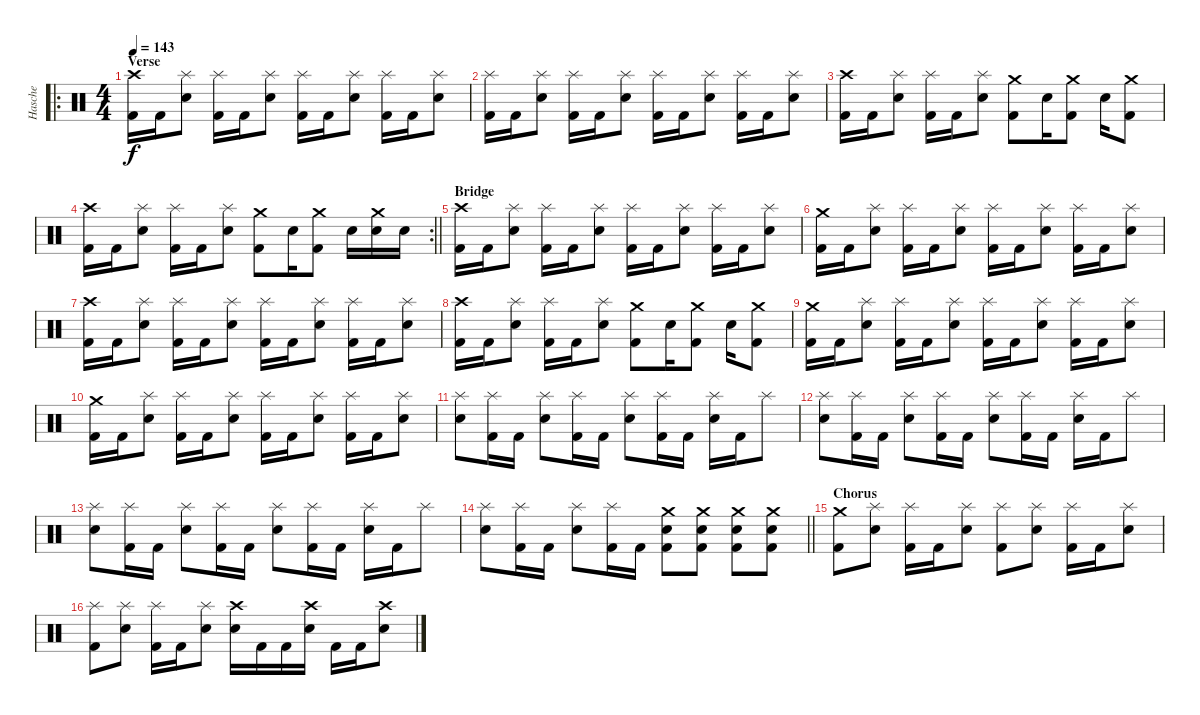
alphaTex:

\track ("Hasche" "Hasche") {instrument percussion}
\staff {score}
\articulation defaults
\ro
\ts (4 4)
\section ("" "Verse")
\tempo 143
\clef neutral
\ks c
("Crash high (hit)" "Kick (hit) 2").16{dy f} "Kick (hit) 2".16 ("Splash (hit)" "Snare (hit) 2").8 ("Splash (hit)" "Kick (hit) 2").16 "Kick (hit) 2".16 ("Splash (hit)" "Snare (hit) 2").8 ("Splash (hit)" "Kick (hit) 2").16 "Kick (hit) 2".16 ("Splash (hit)" "Snare (hit) 2").8 ("Splash (hit)" "Kick (hit) 2").16 "Kick (hit) 2".16 ("Splash (hit)" "Snare (hit) 2").8 |
("Splash (hit)" "Kick (hit) 2").16 "Kick (hit) 2".16 ("Splash (hit)" "Snare (hit) 2").8 ("Splash (hit)" "Kick (hit) 2").16 "Kick (hit) 2".16 ("Splash (hit)" "Snare (hit) 2").8 ("Splash (hit)" "Kick (hit) 2").16 "Kick (hit) 2".16 ("Splash (hit)" "Snare (hit) 2").8 ("Splash (hit)" "Kick (hit) 2").16 "Kick (hit) 2".16 ("Splash (hit)" "Snare (hit) 2").8 |
("Crash high (hit)" "Kick (hit) 2").16 "Kick (hit) 2".16 ("Splash (hit)" "Snare (hit) 2").8 ("Splash (hit)" "Kick (hit) 2").16 "Kick (hit) 2".16 ("Splash (hit)" "Snare (hit) 2").8 ("Crash medium (hit)" "Kick (hit) 2").8 "Snare (hit) 2".16 ("Crash medium (hit)" "Kick (hit) 2").8 "Snare (hit) 2".16 ("Crash medium (hit)" "Kick (hit) 2").8 |
\rc 2
\barLineRight lightlight
("Crash high (hit)" "Kick (hit) 2").16 "Kick (hit) 2".16 ("Splash (hit)" "Snare (hit) 2").8 ("Splash (hit)" "Kick (hit) 2").16 "Kick (hit) 2".16 ("Splash (hit)" "Snare (hit) 2").8 ("Crash medium (hit)" "Kick (hit) 2").8 "Snare (hit) 2".16 ("Crash medium (hit)" "Kick (hit) 2").8 "Snare (hit) 2".16 ("Crash medium (hit)" "Snare (hit) 2").16 "Snare (hit) 2".16 |
\section ("" "Bridge")
("Crash high (hit)" "Kick (hit) 2").16 "Kick (hit) 2".16 ("Splash (hit)" "Snare (hit) 2").8 ("Splash (hit)" "Kick (hit) 2").16 "Kick (hit) 2".16 ("Splash (hit)" "Snare (hit) 2").8 ("Splash (hit)" "Kick (hit) 2").16 "Kick (hit) 2".16 ("Splash (hit)" "Snare (hit) 2").8 ("Splash (hit)" "Kick (hit) 2").16 "Kick (hit) 2".16 ("Splash (hit)" "Snare (hit) 2").8 |
("Crash medium (hit)" "Kick (hit) 2").16 "Kick (hit) 2".16 ("Splash (hit)" "Snare (hit) 2").8 ("Splash (hit)" "Kick (hit) 2").16 "Kick (hit) 2".16 ("Splash (hit)" "Snare (hit) 2").8 ("Splash (hit)" "Kick (hit) 2").16 "Kick (hit) 2".16 ("Splash (hit)" "Snare (hit) 2").8 ("Splash (hit)" "Kick (hit) 2").16 "Kick (hit) 2".16 ("Splash (hit)" "Snare (hit) 2").8 |
("Crash high (hit)" "Kick (hit) 2").16 "Kick (hit) 2".16 ("Splash (hit)" "Snare (hit) 2").8 ("Splash (hit)" "Kick (hit) 2").16 "Kick (hit) 2".16 ("Splash (hit)" "Snare (hit) 2").8 ("Splash (hit)" "Kick (hit) 2").16 "Kick (hit) 2".16 ("Splash (hit)" "Snare (hit) 2").8 ("Splash (hit)" "Kick (hit) 2").16 "Kick (hit) 2".16 ("Splash (hit)" "Snare (hit) 2").8 |
("Crash high (hit)" "Kick (hit) 2").16 "Kick (hit) 2".16 ("Splash (hit)" "Snare (hit) 2").8 ("Splash (hit)" "Kick (hit) 2").16 "Kick (hit) 2".16 ("Splash (hit)" "Snare (hit) 2").8 ("Crash medium (hit)" "Kick (hit) 2").8 "Snare (hit) 2".16 ("Crash medium (hit)" "Kick (hit) 2").8 "Snare (hit) 2".16 ("Crash medium (hit)" "Kick (hit) 2").8 |
("Crash medium (hit)" "Kick (hit) 2").16 "Kick (hit) 2".16 ("Splash (hit)" "Snare (hit) 2").8 ("Splash (hit)" "Kick (hit) 2").16 "Kick (hit) 2".16 ("Splash (hit)" "Snare (hit) 2").8 ("Splash (hit)" "Kick (hit) 2").16 "Kick (hit) 2".16 ("Splash (hit)" "Snare (hit) 2").8 ("Splash (hit)" "Kick (hit) 2").16 "Kick (hit) 2".16 ("Splash (hit)" "Snare (hit) 2").8 |
("Crash medium (hit)" "Kick (hit) 2").16 "Kick (hit) 2".16 ("Splash (hit)" "Snare (hit) 2").8 ("Splash (hit)" "Kick (hit) 2").16 "Kick (hit) 2".16 ("Splash (hit)" "Snare (hit) 2").8 ("Splash (hit)" "Kick (hit) 2").16 "Kick (hit) 2".16 ("Splash (hit)" "Snare (hit) 2").8 ("Splash (hit)" "Kick (hit) 2").16 "Kick (hit) 2".16 ("Splash (hit)" "Snare (hit) 2").8 |
("Splash (hit)" "Snare (hit) 2").8 ("Splash (hit)" "Kick (hit) 2").16 "Kick (hit) 2".16 ("Splash (hit)" "Snare (hit) 2").8 ("Splash (hit)" "Kick (hit) 2").16 "Kick (hit) 2".16 ("Splash (hit)" "Snare (hit) 2").8 ("Splash (hit)" "Kick (hit) 2").16 "Kick (hit) 2".16 ("Splash (hit)" "Snare (hit) 2").16 "Kick (hit) 2".16 "Splash (hit)".8 |
("Splash (hit)" "Snare (hit) 2").8 ("Splash (hit)" "Kick (hit) 2").16 "Kick (hit) 2".16 ("Splash (hit)" "Snare (hit) 2").8 ("Splash (hit)" "Kick (hit) 2").16 "Kick (hit) 2".16 ("Splash (hit)" "Snare (hit) 2").8 ("Splash (hit)" "Kick (hit) 2").16 "Kick (hit) 2".16 ("Splash (hit)" "Snare (hit) 2").16 "Kick (hit) 2".16 "Splash (hit)".8 |
("Splash (hit)" "Snare (hit) 2").8 ("Splash (hit)" "Kick (hit) 2").16 "Kick (hit) 2".16 ("Splash (hit)" "Snare (hit) 2").8 ("Splash (hit)" "Kick (hit) 2").16 "Kick (hit) 2".16 ("Splash (hit)" "Snare (hit) 2").8 ("Splash (hit)" "Kick (hit) 2").16 "Kick (hit) 2".16 ("Splash (hit)" "Snare (hit) 2").16 "Kick (hit) 2".16 "Splash (hit)".8 |
\barLineRight lightlight
("Splash (hit)" "Snare (hit) 2").8 ("Splash (hit)" "Kick (hit) 2").16 "Kick (hit) 2".16 ("Splash (hit)" "Snare (hit) 2").8 ("Splash (hit)" "Kick (hit) 2").16 "Kick (hit) 2".16 ("Crash medium (hit)" "Snare (hit) 2" "Kick (hit) 2").8 ("Crash medium (hit)" "Snare (hit) 2" "Kick (hit) 2").8 ("Crash medium (hit)" "Snare (hit) 2" "Kick (hit) 2").8 ("Crash medium (hit)" "Snare (hit) 2" "Kick (hit) 2").8 |
\section ("" "Chorus")
("Crash medium (hit)" "Kick (hit) 2").8 ("Splash (hit)" "Snare (hit) 2").8 ("Splash (hit)" "Kick (hit) 2").16 "Kick (hit) 2".16 ("Splash (hit)" "Snare (hit) 2").8 ("Splash (hit)" "Kick (hit) 2").8 ("Splash (hit)" "Snare (hit) 2").8 ("Splash (hit)" "Kick (hit) 2").16 "Kick (hit) 2".16 ("Splash (hit)" "Snare (hit) 2").8 |
("Splash (hit)" "Kick (hit) 2").8 ("Splash (hit)" "Snare (hit) 2").8 ("Splash (hit)" "Kick (hit) 2").16 "Kick (hit) 2".16 ("Splash (hit)" "Snare (hit) 2").8 ("Crash high (hit)" "Snare (hit) 2").16 "Kick (hit) 2".16 "Kick (hit) 2".16 ("Crash high (hit)" "Snare (hit) 2").16 "Kick (hit) 2".16 "Kick (hit) 2".16 ("Crash high (hit)" "Snare (hit) 2").8
